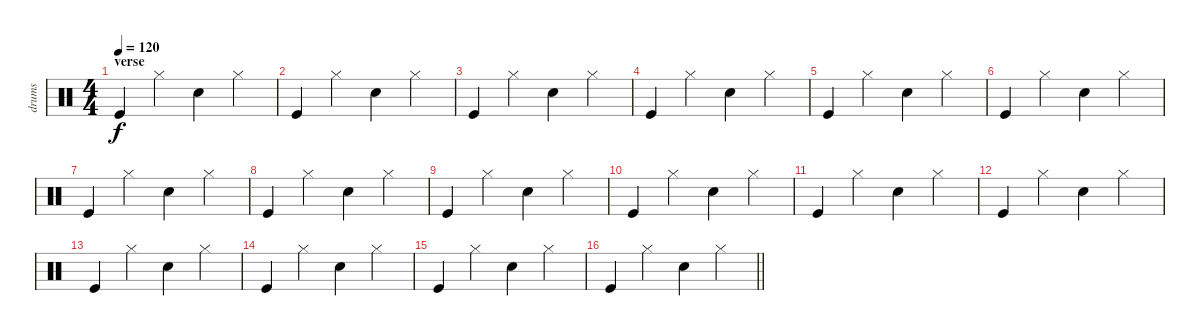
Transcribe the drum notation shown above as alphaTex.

\track ("drums" "drums") {instrument percussion}
\staff {score}
\articulation defaults
\ts (4 4)
\section ("" "verse")
\tempo 120
\clef neutral
\ks c "Kick (hit)".4{dy f} "Hi-Hat (closed)".4 "Snare (hit) 2".4 "Hi-Hat (closed)".4
|
"Kick (hit)".4 "Hi-Hat (closed)".4 "Snare (hit) 2".4 "Hi-Hat (closed)".4 |
"Kick (hit)".4 "Hi-Hat (closed)".4 "Snare (hit) 2".4 "Hi-Hat (closed)".4 |
"Kick (hit)".4 "Hi-Hat (closed)".4 "Snare (hit) 2".4 "Hi-Hat (closed)".4 |
"Kick (hit)".4 "Hi-Hat (closed)".4 "Snare (hit) 2".4 "Hi-Hat (closed)".4 |
"Kick (hit)".4 "Hi-Hat (closed)".4 "Snare (hit) 2".4 "Hi-Hat (closed)".4 |
"Kick (hit)".4 "Hi-Hat (closed)".4 "Snare (hit) 2".4 "Hi-Hat (closed)".4 |
"Kick (hit)".4 "Hi-Hat (closed)".4 "Snare (hit) 2".4 "Hi-Hat (closed)".4 |
"Kick (hit)".4 "Hi-Hat (closed)".4 "Snare (hit) 2".4 "Hi-Hat (closed)".4 |
"Kick (hit)".4 "Hi-Hat (closed)".4 "Snare (hit) 2".4 "Hi-Hat (closed)".4 |
"Kick (hit)".4 "Hi-Hat (closed)".4 "Snare (hit) 2".4 "Hi-Hat (closed)".4 |
"Kick (hit)".4 "Hi-Hat (closed)".4 "Snare (hit) 2".4 "Hi-Hat (closed)".4 |
"Kick (hit)".4 "Hi-Hat (closed)".4 "Snare (hit) 2".4 "Hi-Hat (closed)".4 |
"Kick (hit)".4 "Hi-Hat (closed)".4 "Snare (hit) 2".4 "Hi-Hat (closed)".4 |
"Kick (hit)".4 "Hi-Hat (closed)".4 "Snare (hit) 2".4 "Hi-Hat (closed)".4 |
\barLineRight lightlight "Kick (hit)".4 "Hi-Hat (closed)".4 "Snare (hit) 2".4 "Hi-Hat (closed)".4
